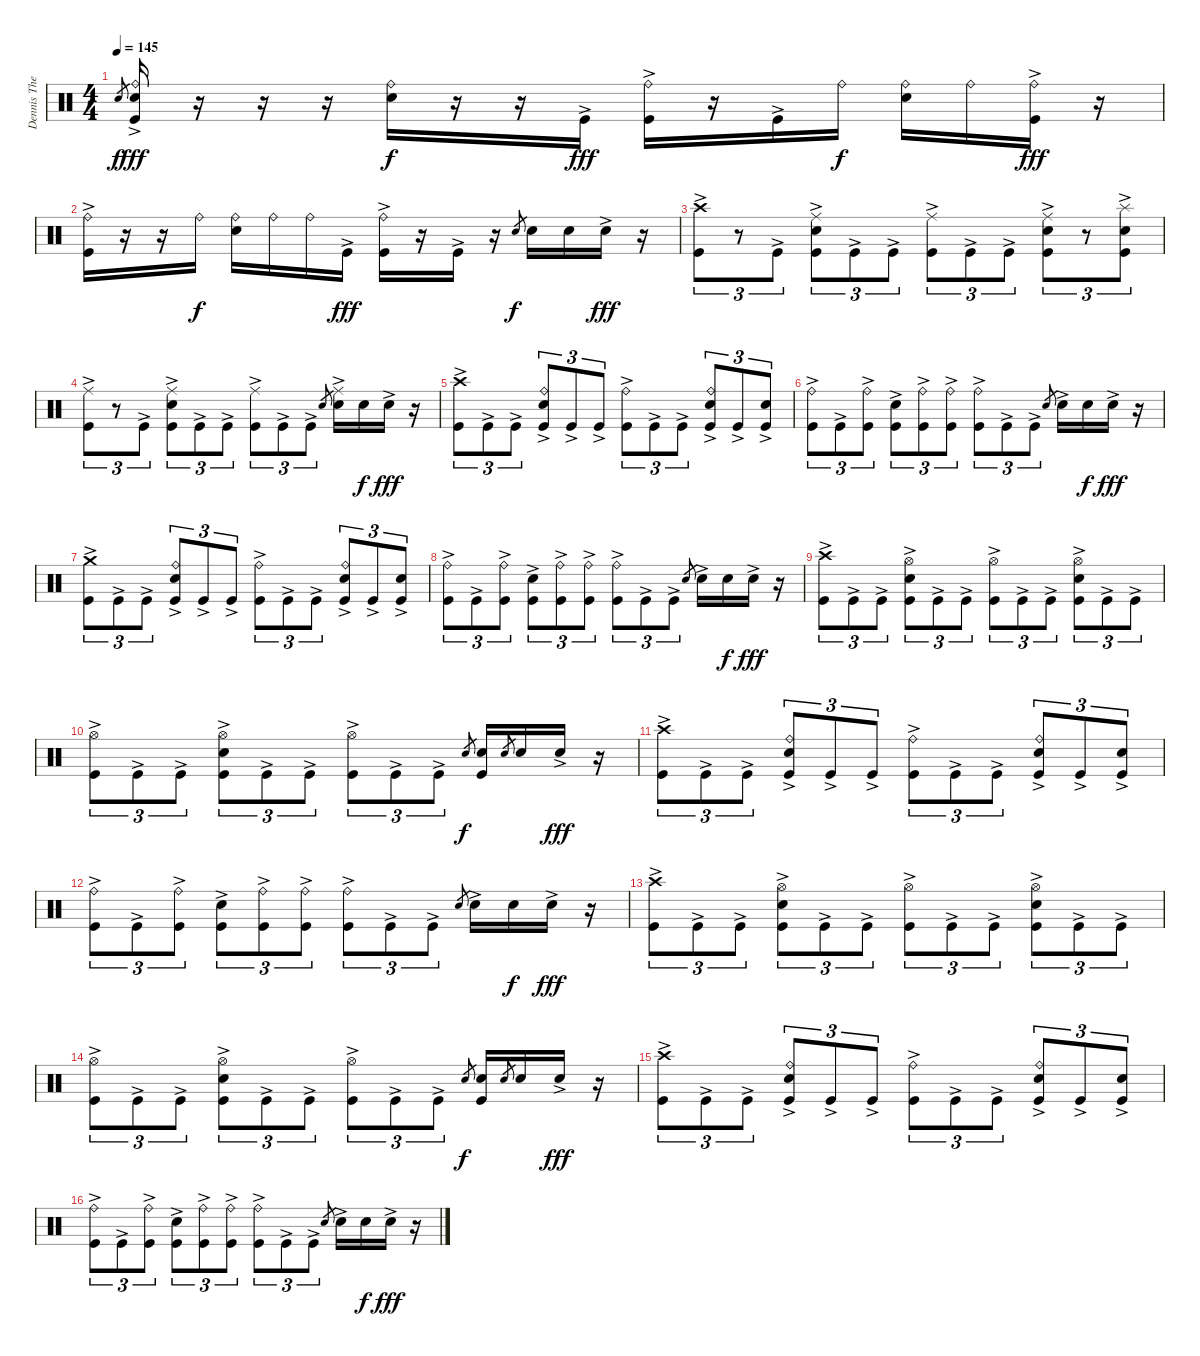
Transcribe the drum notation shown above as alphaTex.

\track ("Dennis The Menace" "Dennis The") {instrument percussion}
\staff {score}
\articulation defaults
\ts (4 4)
\tempo 145
\clef neutral
\ks c "Electric Snare (hit)".8{gr dy f}
("Ride (bell)" "Kick (hit)"{ac} "Electric Snare (hit)").16{dy fff} r.16 r.16 r.16 ("Ride (bell)" "Electric Snare (hit)").16{dy f} r.16 r.16 "Kick (hit)"{ac}.16{dy fff} ("Ride (bell)" "Kick (hit)"{ac}).16 r.16 "Kick (hit)"{ac}.16 "Ride (bell)".16{dy f} ("Ride (bell)" "Electric Snare (hit)").16 "Ride (bell)".16 ("Ride (bell)" "Kick (hit)"{ac}).16{dy fff} r.16 |
("Ride (bell)" "Kick (hit)"{ac}).16 r.16 r.16 "Ride (bell)".16{dy f} ("Ride (bell)" "Electric Snare (hit)").16 "Ride (bell)".16 "Ride (bell)".16 "Kick (hit)"{ac}.16{dy fff} ("Ride (bell)" "Kick (hit)"{ac}).16 r.16 "Kick (hit)"{ac}.16 r.16 "Electric Snare (hit)".8{gr dy f} "Electric Snare (hit)".16 "Electric Snare (hit)".16 "Electric Snare (hit)"{ac}.16{dy fff} r.16 |
("Crash high (hit)" "Kick (hit)"{ac}).8{tu (3 2)} r.8{tu (3 2)} "Kick (hit)"{ac}.8{tu (3 2)} ("Ride (middle)" "Electric Snare (hit)"{ac} "Kick (hit)"{ac}).8{tu (3 2)} "Kick (hit)"{ac}.8{tu (3 2)} "Kick (hit)"{ac}.8{tu (3 2)} ("Ride (middle)" "Kick (hit)"{ac}).8{tu (3 2)} "Kick (hit)"{ac}.8{tu (3 2)} "Kick (hit)"{ac}.8{tu (3 2)} ("Ride (middle)" "Electric Snare (hit)"{ac} "Kick (hit)"{ac}).8{tu (3 2)} r.8{tu (3 2)} ("Splash (hit)" "Electric Snare (hit)"{ac} "Kick (hit)"{ac}).8{tu (3 2)} |
("Ride (middle)" "Kick (hit)"{ac}).8{tu (3 2)} r.8{tu (3 2)} "Kick (hit)"{ac}.8{tu (3 2)} ("Ride (middle)" "Electric Snare (hit)"{ac} "Kick (hit)"{ac}).8{tu (3 2)} "Kick (hit)"{ac}.8{tu (3 2)} "Kick (hit)"{ac}.8{tu (3 2)} ("Ride (middle)" "Kick (hit)"{ac}).8{tu (3 2)} "Kick (hit)"{ac}.8{tu (3 2)} "Kick (hit)"{ac}.8{tu (3 2)} "Electric Snare (hit)".8{gr} ("Ride (middle)" "Electric Snare (hit)"{ac}).16 "Electric Snare (hit)".16{dy f} "Electric Snare (hit)"{ac}.16{dy fff} r.16 |
("Crash high (hit)" "Kick (hit)"{ac}).8{tu (3 2)} "Kick (hit)"{ac}.8{tu (3 2)} "Kick (hit)"{ac}.8{tu (3 2)} ("Ride (bell)" "Electric Snare (hit)"{ac} "Kick (hit)"{ac}).8{tu (3 2)} "Kick (hit)"{ac}.8{tu (3 2)} "Kick (hit)"{ac}.8{tu (3 2)} ("Ride (bell)" "Kick (hit)"{ac}).8{tu (3 2)} "Kick (hit)"{ac}.8{tu (3 2)} "Kick (hit)"{ac}.8{tu (3 2)} ("Ride (bell)" "Electric Snare (hit)"{ac} "Kick (hit)"{ac}).8{tu (3 2)} "Kick (hit)"{ac}.8{tu (3 2)} ("Electric Snare (hit)"{ac} "Kick (hit)"{ac}).8{tu (3 2)} |
("Ride (bell)" "Kick (hit)"{ac}).8{tu (3 2)} "Kick (hit)"{ac}.8{tu (3 2)} ("Ride (bell)" "Kick (hit)"{ac}).8{tu (3 2)} ("Electric Snare (hit)"{ac} "Kick (hit)"{ac}).8{tu (3 2)} ("Ride (bell)" "Kick (hit)"{ac}).8{tu (3 2)} ("Ride (bell)" "Kick (hit)"{ac}).8{tu (3 2)} ("Ride (bell)" "Kick (hit)"{ac}).8{tu (3 2)} "Kick (hit)"{ac}.8{tu (3 2)} "Kick (hit)"{ac}.8{tu (3 2)} "Electric Snare (hit)".8{gr} "Electric Snare (hit)"{ac}.16 "Electric Snare (hit)".16{dy f} "Electric Snare (hit)"{ac}.16{dy fff} r.16 |
("Crash medium (hit)" "Kick (hit)"{ac}).8{tu (3 2)} "Kick (hit)"{ac}.8{tu (3 2)} "Kick (hit)"{ac}.8{tu (3 2)} ("Ride (bell)" "Electric Snare (hit)"{ac} "Kick (hit)"{ac}).8{tu (3 2)} "Kick (hit)"{ac}.8{tu (3 2)} "Kick (hit)"{ac}.8{tu (3 2)} ("Ride (bell)" "Kick (hit)"{ac}).8{tu (3 2)} "Kick (hit)"{ac}.8{tu (3 2)} "Kick (hit)"{ac}.8{tu (3 2)} ("Ride (bell)" "Electric Snare (hit)"{ac} "Kick (hit)"{ac}).8{tu (3 2)} "Kick (hit)"{ac}.8{tu (3 2)} ("Electric Snare (hit)"{ac} "Kick (hit)"{ac}).8{tu (3 2)} |
("Ride (bell)" "Kick (hit)"{ac}).8{tu (3 2)} "Kick (hit)"{ac}.8{tu (3 2)} ("Ride (bell)" "Kick (hit)"{ac}).8{tu (3 2)} ("Electric Snare (hit)"{ac} "Kick (hit)"{ac}).8{tu (3 2)} ("Ride (bell)" "Kick (hit)"{ac}).8{tu (3 2)} ("Ride (bell)" "Kick (hit)"{ac}).8{tu (3 2)} ("Ride (bell)" "Kick (hit)"{ac}).8{tu (3 2)} "Kick (hit)"{ac}.8{tu (3 2)} "Kick (hit)"{ac}.8{tu (3 2)} "Electric Snare (hit)".8{gr} "Electric Snare (hit)"{ac}.16 "Electric Snare (hit)".16{dy f} "Electric Snare (hit)"{ac}.16{dy fff} r.16 |
("Crash high (hit)" "Kick (hit)"{ac}).8{tu (3 2)} "Kick (hit)"{ac}.8{tu (3 2)} "Kick (hit)"{ac}.8{tu (3 2)} ("Hi-Hat (open)" "Electric Snare (hit)"{ac} "Kick (hit)"{ac}).8{tu (3 2)} "Kick (hit)"{ac}.8{tu (3 2)} "Kick (hit)"{ac}.8{tu (3 2)} ("Hi-Hat (open)" "Kick (hit)"{ac}).8{tu (3 2)} "Kick (hit)"{ac}.8{tu (3 2)} "Kick (hit)"{ac}.8{tu (3 2)} ("Hi-Hat (open)" "Electric Snare (hit)"{ac} "Kick (hit)"{ac}).8{tu (3 2)} "Kick (hit)"{ac}.8{tu (3 2)} "Kick (hit)"{ac}.8{tu (3 2)} |
("Hi-Hat (open)" "Kick (hit)"{ac}).8{tu (3 2)} "Kick (hit)"{ac}.8{tu (3 2)} "Kick (hit)"{ac}.8{tu (3 2)} ("Hi-Hat (open)" "Electric Snare (hit)"{ac} "Kick (hit)"{ac}).8{tu (3 2)} "Kick (hit)"{ac}.8{tu (3 2)} "Kick (hit)"{ac}.8{tu (3 2)} ("Hi-Hat (open)" "Kick (hit)"{ac}).8{tu (3 2)} "Kick (hit)"{ac}.8{tu (3 2)} "Kick (hit)"{ac}.8{tu (3 2)} "Electric Snare (hit)".8{gr dy f} ("Electric Snare (hit)" "Kick (hit)").16 "Electric Snare (hit)".8{gr} "Electric Snare (hit)".16 "Electric Snare (hit)"{ac}.16{dy fff} r.16 |
("Crash high (hit)" "Kick (hit)"{ac}).8{tu (3 2)} "Kick (hit)"{ac}.8{tu (3 2)} "Kick (hit)"{ac}.8{tu (3 2)} ("Ride (bell)" "Electric Snare (hit)"{ac} "Kick (hit)"{ac}).8{tu (3 2)} "Kick (hit)"{ac}.8{tu (3 2)} "Kick (hit)"{ac}.8{tu (3 2)} ("Ride (bell)" "Kick (hit)"{ac}).8{tu (3 2)} "Kick (hit)"{ac}.8{tu (3 2)} "Kick (hit)"{ac}.8{tu (3 2)} ("Ride (bell)" "Electric Snare (hit)"{ac} "Kick (hit)"{ac}).8{tu (3 2)} "Kick (hit)"{ac}.8{tu (3 2)} ("Electric Snare (hit)"{ac} "Kick (hit)"{ac}).8{tu (3 2)} |
("Ride (bell)" "Kick (hit)"{ac}).8{tu (3 2)} "Kick (hit)"{ac}.8{tu (3 2)} ("Ride (bell)" "Kick (hit)"{ac}).8{tu (3 2)} ("Electric Snare (hit)"{ac} "Kick (hit)"{ac}).8{tu (3 2)} ("Ride (bell)" "Kick (hit)"{ac}).8{tu (3 2)} ("Ride (bell)" "Kick (hit)"{ac}).8{tu (3 2)} ("Ride (bell)" "Kick (hit)"{ac}).8{tu (3 2)} "Kick (hit)"{ac}.8{tu (3 2)} "Kick (hit)"{ac}.8{tu (3 2)} "Electric Snare (hit)".8{gr} "Electric Snare (hit)"{ac}.16 "Electric Snare (hit)".16{dy f} "Electric Snare (hit)"{ac}.16{dy fff} r.16 |
("Crash high (hit)" "Kick (hit)"{ac}).8{tu (3 2)} "Kick (hit)"{ac}.8{tu (3 2)} "Kick (hit)"{ac}.8{tu (3 2)} ("Hi-Hat (open)" "Electric Snare (hit)"{ac} "Kick (hit)"{ac}).8{tu (3 2)} "Kick (hit)"{ac}.8{tu (3 2)} "Kick (hit)"{ac}.8{tu (3 2)} ("Hi-Hat (open)" "Kick (hit)"{ac}).8{tu (3 2)} "Kick (hit)"{ac}.8{tu (3 2)} "Kick (hit)"{ac}.8{tu (3 2)} ("Hi-Hat (open)" "Electric Snare (hit)"{ac} "Kick (hit)"{ac}).8{tu (3 2)} "Kick (hit)"{ac}.8{tu (3 2)} "Kick (hit)"{ac}.8{tu (3 2)} |
("Hi-Hat (open)" "Kick (hit)"{ac}).8{tu (3 2)} "Kick (hit)"{ac}.8{tu (3 2)} "Kick (hit)"{ac}.8{tu (3 2)} ("Hi-Hat (open)" "Electric Snare (hit)"{ac} "Kick (hit)"{ac}).8{tu (3 2)} "Kick (hit)"{ac}.8{tu (3 2)} "Kick (hit)"{ac}.8{tu (3 2)} ("Hi-Hat (open)" "Kick (hit)"{ac}).8{tu (3 2)} "Kick (hit)"{ac}.8{tu (3 2)} "Kick (hit)"{ac}.8{tu (3 2)} "Electric Snare (hit)".8{gr dy f} ("Electric Snare (hit)" "Kick (hit)").16 "Electric Snare (hit)".8{gr} "Electric Snare (hit)".16 "Electric Snare (hit)"{ac}.16{dy fff} r.16 |
("Crash high (hit)" "Kick (hit)"{ac}).8{tu (3 2)} "Kick (hit)"{ac}.8{tu (3 2)} "Kick (hit)"{ac}.8{tu (3 2)} ("Ride (bell)" "Electric Snare (hit)"{ac} "Kick (hit)"{ac}).8{tu (3 2)} "Kick (hit)"{ac}.8{tu (3 2)} "Kick (hit)"{ac}.8{tu (3 2)} ("Ride (bell)" "Kick (hit)"{ac}).8{tu (3 2)} "Kick (hit)"{ac}.8{tu (3 2)} "Kick (hit)"{ac}.8{tu (3 2)} ("Ride (bell)" "Electric Snare (hit)"{ac} "Kick (hit)"{ac}).8{tu (3 2)} "Kick (hit)"{ac}.8{tu (3 2)} ("Electric Snare (hit)"{ac} "Kick (hit)"{ac}).8{tu (3 2)} |
("Ride (bell)" "Kick (hit)"{ac}).8{tu (3 2)} "Kick (hit)"{ac}.8{tu (3 2)} ("Ride (bell)" "Kick (hit)"{ac}).8{tu (3 2)} ("Electric Snare (hit)"{ac} "Kick (hit)"{ac}).8{tu (3 2)} ("Ride (bell)" "Kick (hit)"{ac}).8{tu (3 2)} ("Ride (bell)" "Kick (hit)"{ac}).8{tu (3 2)} ("Ride (bell)" "Kick (hit)"{ac}).8{tu (3 2)} "Kick (hit)"{ac}.8{tu (3 2)} "Kick (hit)"{ac}.8{tu (3 2)} "Electric Snare (hit)".8{gr} "Electric Snare (hit)"{ac}.16 "Electric Snare (hit)".16{dy f} "Electric Snare (hit)"{ac}.16{dy fff} r.16
